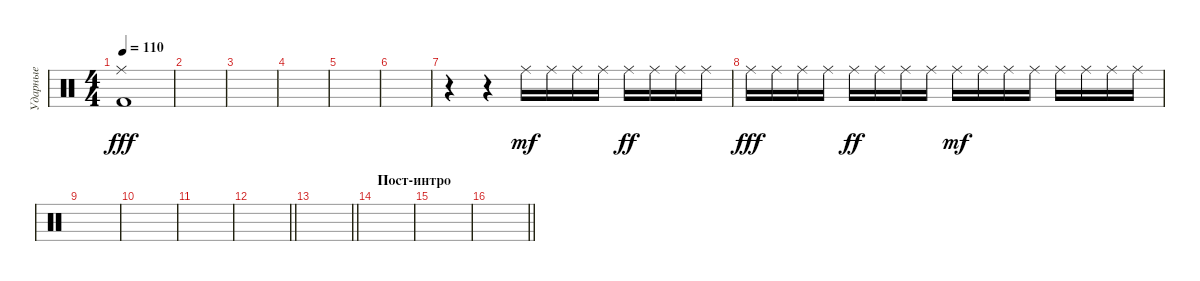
\track ("Ударные" "Ударные") {mute instrument percussion}
\staff {score}
\articulation defaults
\ts (4 4)
\tempo 110
\clef neutral
\ks c
("Ride (middle)" "Kick (hit) 2").1{dy fff} |
|
|
|
|
|
r.4 r.4 "Ride (middle)".16{dy mf} "Ride (middle)".16 "Ride (middle)".16 "Ride (middle)".16 "Ride (middle)".16{dy ff} "Ride (middle)".16 "Ride (middle)".16 "Ride (middle)".16 |
"Ride (middle)".16{dy fff} "Ride (middle)".16 "Ride (middle)".16 "Ride (middle)".16 "Ride (middle)".16{dy ff} "Ride (middle)".16 "Ride (middle)".16 "Ride (middle)".16 "Ride (middle)".16{dy mf} "Ride (middle)".16 "Ride (middle)".16 "Ride (middle)".16 "Ride (middle)".16 "Ride (middle)".16 "Ride (middle)".16 "Ride (middle)".16 |
|
|
|
\barLineRight lightlight
|
\barLineRight lightlight
|
\section ("" "Пост-интро")
|
|
\barLineRight lightlight
